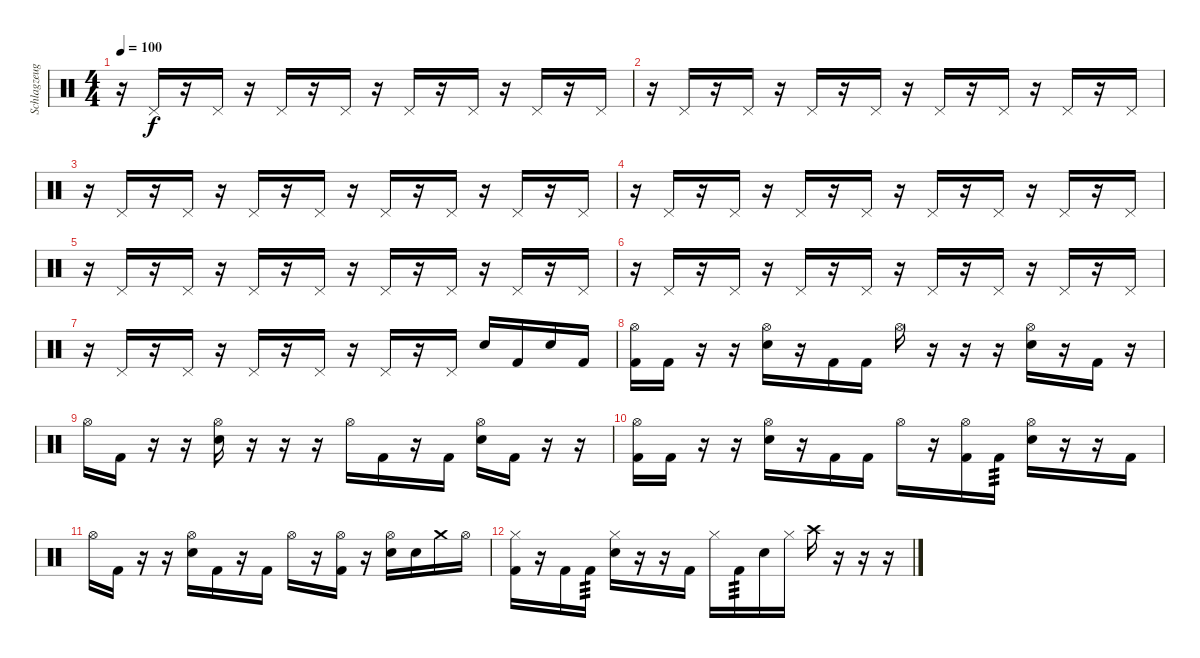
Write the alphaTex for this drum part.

\track ("Schlagzeug" "Schlagzeug") {instrument percussion}
\staff {score}
\articulation defaults
\ts (4 4)
\tempo 100
\clef neutral
\ks c
r.16{dy f} "Pedal Hi-Hat (hit)".16 r.16 "Pedal Hi-Hat (hit)".16 r.16 "Pedal Hi-Hat (hit)".16 r.16 "Pedal Hi-Hat (hit)".16 r.16 "Pedal Hi-Hat (hit)".16 r.16 "Pedal Hi-Hat (hit)".16 r.16 "Pedal Hi-Hat (hit)".16 r.16 "Pedal Hi-Hat (hit)".16 |
r.16 "Pedal Hi-Hat (hit)".16 r.16 "Pedal Hi-Hat (hit)".16 r.16 "Pedal Hi-Hat (hit)".16 r.16 "Pedal Hi-Hat (hit)".16 r.16 "Pedal Hi-Hat (hit)".16 r.16 "Pedal Hi-Hat (hit)".16 r.16 "Pedal Hi-Hat (hit)".16 r.16 "Pedal Hi-Hat (hit)".16 |
r.16 "Pedal Hi-Hat (hit)".16 r.16 "Pedal Hi-Hat (hit)".16 r.16 "Pedal Hi-Hat (hit)".16 r.16 "Pedal Hi-Hat (hit)".16 r.16 "Pedal Hi-Hat (hit)".16 r.16 "Pedal Hi-Hat (hit)".16 r.16 "Pedal Hi-Hat (hit)".16 r.16 "Pedal Hi-Hat (hit)".16 |
r.16 "Pedal Hi-Hat (hit)".16 r.16 "Pedal Hi-Hat (hit)".16 r.16 "Pedal Hi-Hat (hit)".16 r.16 "Pedal Hi-Hat (hit)".16 r.16 "Pedal Hi-Hat (hit)".16 r.16 "Pedal Hi-Hat (hit)".16 r.16 "Pedal Hi-Hat (hit)".16 r.16 "Pedal Hi-Hat (hit)".16 |
r.16 "Pedal Hi-Hat (hit)".16 r.16 "Pedal Hi-Hat (hit)".16 r.16 "Pedal Hi-Hat (hit)".16 r.16 "Pedal Hi-Hat (hit)".16 r.16 "Pedal Hi-Hat (hit)".16 r.16 "Pedal Hi-Hat (hit)".16 r.16 "Pedal Hi-Hat (hit)".16 r.16 "Pedal Hi-Hat (hit)".16 |
r.16 "Pedal Hi-Hat (hit)".16 r.16 "Pedal Hi-Hat (hit)".16 r.16 "Pedal Hi-Hat (hit)".16 r.16 "Pedal Hi-Hat (hit)".16 r.16 "Pedal Hi-Hat (hit)".16 r.16 "Pedal Hi-Hat (hit)".16 r.16 "Pedal Hi-Hat (hit)".16 r.16 "Pedal Hi-Hat (hit)".16 |
r.16 "Pedal Hi-Hat (hit)".16 r.16 "Pedal Hi-Hat (hit)".16 r.16 "Pedal Hi-Hat (hit)".16 r.16 "Pedal Hi-Hat (hit)".16 r.16 "Pedal Hi-Hat (hit)".16 r.16 "Pedal Hi-Hat (hit)".16 "Snare (hit) 2".16 "Kick (hit) 2".16 "Snare (hit) 2".16 "Kick (hit) 2".16 |
("Hi-Hat (open)" "Kick (hit) 2").16 "Kick (hit) 2".16 r.16 r.16 ("Hi-Hat (open)" "Snare (hit) 2").16 r.16 "Kick (hit) 2".16 "Kick (hit) 2".16 "Hi-Hat (open)".16 r.16 r.16 r.16 ("Hi-Hat (open)" "Snare (hit) 2").16 r.16 "Kick (hit) 2".16 r.16 |
"Hi-Hat (open)".16 "Kick (hit) 2".16 r.16 r.16 ("Hi-Hat (open)" "Snare (hit) 2").16 r.16 r.16 r.16 "Hi-Hat (open)".16 "Kick (hit) 2".16 r.16 "Kick (hit) 2".16 ("Hi-Hat (open)" "Snare (hit) 2").16 "Kick (hit) 2".16 r.16 r.16 |
("Hi-Hat (open)" "Kick (hit) 2").16 "Kick (hit) 2".16 r.16 r.16 ("Hi-Hat (open)" "Snare (hit) 2").16 r.16 "Kick (hit) 2".16 "Kick (hit) 2".16 "Hi-Hat (open)".16 r.16 ("Hi-Hat (open)" "Kick (hit) 2").16 "Kick (hit) 2".16{tp 3} ("Hi-Hat (open)" "Snare (hit) 2").16 r.16 r.16 "Kick (hit) 2".16 |
"Hi-Hat (open)".16 "Kick (hit) 2".16 r.16 r.16 ("Hi-Hat (open)" "Snare (hit) 2").16 "Kick (hit) 2".16 r.16 "Kick (hit) 2".16 "Hi-Hat (open)".16 r.16 ("Hi-Hat (open)" "Kick (hit) 2").16 r.16 ("Hi-Hat (open)" "Snare (hit) 2").16 "Snare (hit) 2".16 "Crash medium (hit)".16 "Hi-Hat (open)".16 |
("Hi-Hat (closed)" "Kick (hit) 2").16 r.16 "Kick (hit) 2".16 "Kick (hit) 2".16{tp 3} ("Hi-Hat (closed)" "Snare (hit) 2").16 r.16 r.16 "Kick (hit) 2".16 "Hi-Hat (closed)".16 "Kick (hit) 2".16{tp 3} "Snare (hit) 2".16 "Hi-Hat (closed)".16 "Crash high (hit)".16 r.16 r.16 r.16
